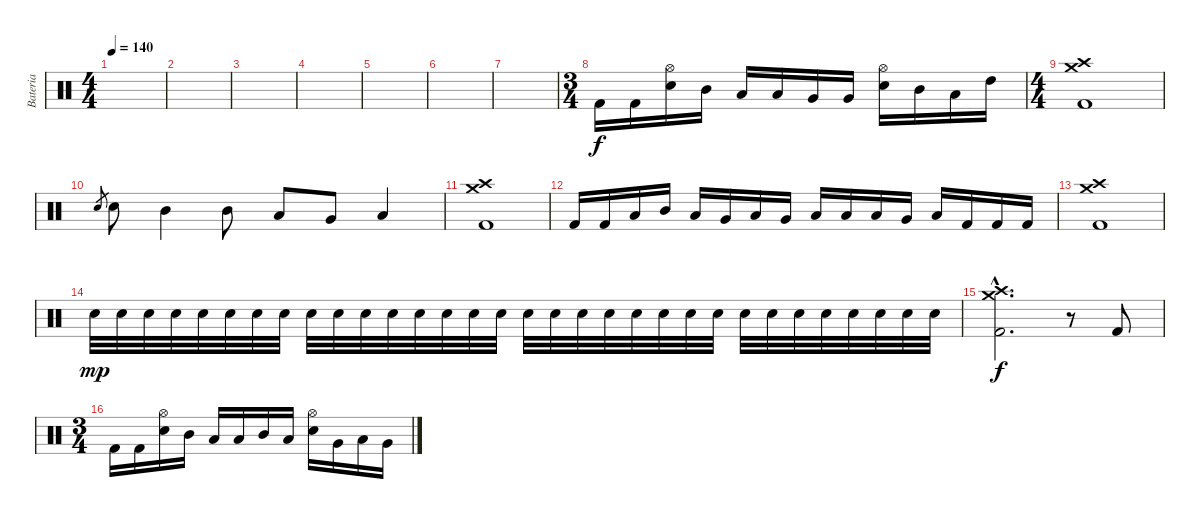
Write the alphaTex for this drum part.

\track ("Bateria" "Bateria") {instrument percussion}
\staff {score}
\articulation defaults
\ts (4 4)
\tempo 140
\clef neutral
\ks c
|
|
|
|
|
|
|
\ts (3 4)
"Kick (hit) 2".16 "Kick (hit) 2".16 ("Hi-Hat (open)" "Snare (hit) 2").16 "Mid Tom (hit)".16 "Low Tom (hit)".16 "Low Tom (hit)".16 "Very Low Tom (hit)".16 "Very Low Tom (hit)".16 ("Hi-Hat (open)" "Snare (hit) 2").16 "Mid Tom (hit)".16 "Low Tom (hit)".16 "High Tom (hit)".16 |
\ts (4 4)
("Crash medium (hit)" "Crash high (hit)" "Kick (hit) 2").1 |
"Snare (hit) 2".8{gr} "Snare (hit) 2".8 "Mid Tom (hit)".4 "Mid Tom (hit)".8 "Low Tom (hit)".8 "Very Low Tom (hit)".8 "Low Floor Tom (hit)".4 |
("Crash high (hit)" "Crash medium (hit)" "Kick (hit) 2").1 |
"Kick (hit) 2".16 "Kick (hit) 2".16 "Low Tom (hit)".16 "Mid Tom (hit)".16 "Low Tom (hit)".16 "Very Low Tom (hit)".16 "Low Tom (hit)".16 "Very Low Tom (hit)".16 "Low Floor Tom (hit)".16 "Low Tom (hit)".16 "Low Tom (hit)".16 "Very Low Tom (hit)".16 "Low Floor Tom (hit)".16 "Kick (hit) 2".16 "Kick (hit) 2".16 "Kick (hit) 2".16 |
("Crash medium (hit)" "Crash high (hit)" "Kick (hit) 2").1 |
"Snare (hit) 2".32{dy mp} "Snare (hit) 2".32 "Snare (hit) 2".32 "Snare (hit) 2".32 "Snare (hit) 2".32 "Snare (hit) 2".32 "Snare (hit) 2".32 "Snare (hit) 2".32 "Snare (hit) 2".32 "Snare (hit) 2".32 "Snare (hit) 2".32 "Snare (hit) 2".32 "Snare (hit) 2".32 "Snare (hit) 2".32 "Snare (hit) 2".32 "Snare (hit) 2".32 "Snare (hit) 2".32 "Snare (hit) 2".32 "Snare (hit) 2".32 "Snare (hit) 2".32 "Snare (hit) 2".32 "Snare (hit) 2".32 "Snare (hit) 2".32 "Snare (hit) 2".32 "Snare (hit) 2".32 "Snare (hit) 2".32 "Snare (hit) 2".32 "Snare (hit) 2".32 "Snare (hit) 2".32 "Snare (hit) 2".32 "Snare (hit) 2".32 "Snare (hit) 2".32 |
("Crash high (hit)"{hac} "Crash medium (hit)"{hac} "Kick (hit) 2"{hac}).2{d dy f} r.8 "Kick (hit) 2".8 |
\ts (3 4)
"Kick (hit) 2".16 "Kick (hit) 2".16 ("Hi-Hat (open)" "Snare (hit) 2").16 "Mid Tom (hit)".16 "Low Tom (hit)".16 "Low Tom (hit)".16 "Mid Tom (hit)".16 "Low Tom (hit)".16 ("Hi-Hat (open)" "Snare (hit) 2").16 "Very Low Tom (hit)".16 "Low Tom (hit)".16 "Very Low Tom (hit)".16
